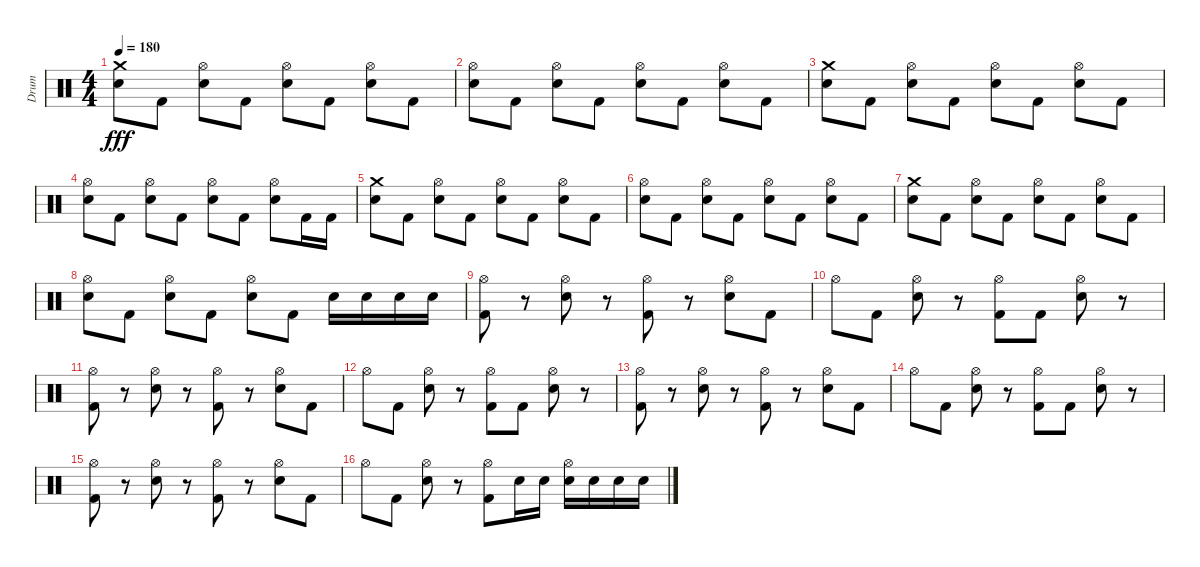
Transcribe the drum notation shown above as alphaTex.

\track ("Drum" "Drum") {instrument percussion}
\staff {score}
\articulation defaults
\ts (4 4)
\tempo 180
\clef neutral
\ks c
("Crash medium (hit)" "Electric Snare (hit)").8{dy fff} "Kick (hit) 2".8 ("Hi-Hat (open)" "Electric Snare (hit)").8 "Kick (hit) 2".8 ("Hi-Hat (open)" "Electric Snare (hit)").8 "Kick (hit) 2".8 ("Hi-Hat (open)" "Electric Snare (hit)").8 "Kick (hit) 2".8 |
("Hi-Hat (open)" "Electric Snare (hit)").8 "Kick (hit) 2".8 ("Hi-Hat (open)" "Electric Snare (hit)").8 "Kick (hit) 2".8 ("Hi-Hat (open)" "Electric Snare (hit)").8 "Kick (hit) 2".8 ("Hi-Hat (open)" "Electric Snare (hit)").8 "Kick (hit) 2".8 |
("Crash medium (hit)" "Electric Snare (hit)").8 "Kick (hit) 2".8 ("Hi-Hat (open)" "Electric Snare (hit)").8 "Kick (hit) 2".8 ("Hi-Hat (open)" "Electric Snare (hit)").8 "Kick (hit) 2".8 ("Hi-Hat (open)" "Electric Snare (hit)").8 "Kick (hit) 2".8 |
("Hi-Hat (open)" "Electric Snare (hit)").8 "Kick (hit) 2".8 ("Hi-Hat (open)" "Electric Snare (hit)").8 "Kick (hit) 2".8 ("Hi-Hat (open)" "Electric Snare (hit)").8 "Kick (hit) 2".8 ("Hi-Hat (open)" "Electric Snare (hit)").8 "Kick (hit) 2".16 "Kick (hit) 2".16 |
("Crash medium (hit)" "Electric Snare (hit)").8 "Kick (hit) 2".8 ("Hi-Hat (open)" "Electric Snare (hit)").8 "Kick (hit) 2".8 ("Hi-Hat (open)" "Electric Snare (hit)").8 "Kick (hit) 2".8 ("Hi-Hat (open)" "Electric Snare (hit)").8 "Kick (hit) 2".8 |
("Hi-Hat (open)" "Electric Snare (hit)").8 "Kick (hit) 2".8 ("Hi-Hat (open)" "Electric Snare (hit)").8 "Kick (hit) 2".8 ("Hi-Hat (open)" "Electric Snare (hit)").8 "Kick (hit) 2".8 ("Hi-Hat (open)" "Electric Snare (hit)").8 "Kick (hit) 2".8 |
("Crash medium (hit)" "Electric Snare (hit)").8 "Kick (hit) 2".8 ("Hi-Hat (open)" "Electric Snare (hit)").8 "Kick (hit) 2".8 ("Hi-Hat (open)" "Electric Snare (hit)").8 "Kick (hit) 2".8 ("Hi-Hat (open)" "Electric Snare (hit)").8 "Kick (hit) 2".8 |
("Hi-Hat (open)" "Electric Snare (hit)").8 "Kick (hit) 2".8 ("Hi-Hat (open)" "Electric Snare (hit)").8 "Kick (hit) 2".8 ("Hi-Hat (open)" "Electric Snare (hit)").8 "Kick (hit) 2".8 "Electric Snare (hit)".16 "Electric Snare (hit)".16 "Electric Snare (hit)".16 "Electric Snare (hit)".16 |
("Hi-Hat (open)" "Kick (hit) 2").8 r.8 ("Hi-Hat (open)" "Electric Snare (hit)").8 r.8 ("Hi-Hat (open)" "Kick (hit) 2").8 r.8 ("Hi-Hat (open)" "Electric Snare (hit)").8 "Kick (hit) 2".8 |
"Hi-Hat (open)".8 "Kick (hit) 2".8 ("Hi-Hat (open)" "Electric Snare (hit)").8 r.8 ("Hi-Hat (open)" "Kick (hit) 2").8 "Kick (hit) 2".8 ("Hi-Hat (open)" "Electric Snare (hit)").8 r.8 |
("Hi-Hat (open)" "Kick (hit) 2").8 r.8 ("Hi-Hat (open)" "Electric Snare (hit)").8 r.8 ("Hi-Hat (open)" "Kick (hit) 2").8 r.8 ("Hi-Hat (open)" "Electric Snare (hit)").8 "Kick (hit) 2".8 |
"Hi-Hat (open)".8 "Kick (hit) 2".8 ("Hi-Hat (open)" "Electric Snare (hit)").8 r.8 ("Hi-Hat (open)" "Kick (hit) 2").8 "Kick (hit) 2".8 ("Hi-Hat (open)" "Electric Snare (hit)").8 r.8 |
("Hi-Hat (open)" "Kick (hit) 2").8 r.8 ("Hi-Hat (open)" "Electric Snare (hit)").8 r.8 ("Hi-Hat (open)" "Kick (hit) 2").8 r.8 ("Hi-Hat (open)" "Electric Snare (hit)").8 "Kick (hit) 2".8 |
"Hi-Hat (open)".8 "Kick (hit) 2".8 ("Hi-Hat (open)" "Electric Snare (hit)").8 r.8 ("Hi-Hat (open)" "Kick (hit) 2").8 "Kick (hit) 2".8 ("Hi-Hat (open)" "Electric Snare (hit)").8 r.8 |
("Hi-Hat (open)" "Kick (hit) 2").8 r.8 ("Hi-Hat (open)" "Electric Snare (hit)").8 r.8 ("Hi-Hat (open)" "Kick (hit) 2").8 r.8 ("Hi-Hat (open)" "Electric Snare (hit)").8 "Kick (hit) 2".8 |
"Hi-Hat (open)".8 "Kick (hit) 2".8 ("Hi-Hat (open)" "Electric Snare (hit)").8 r.8 ("Hi-Hat (open)" "Kick (hit) 2").8 "Electric Snare (hit)".16 "Electric Snare (hit)".16 ("Hi-Hat (open)" "Electric Snare (hit)").16 "Electric Snare (hit)".16 "Electric Snare (hit)".16 "Electric Snare (hit)".16
